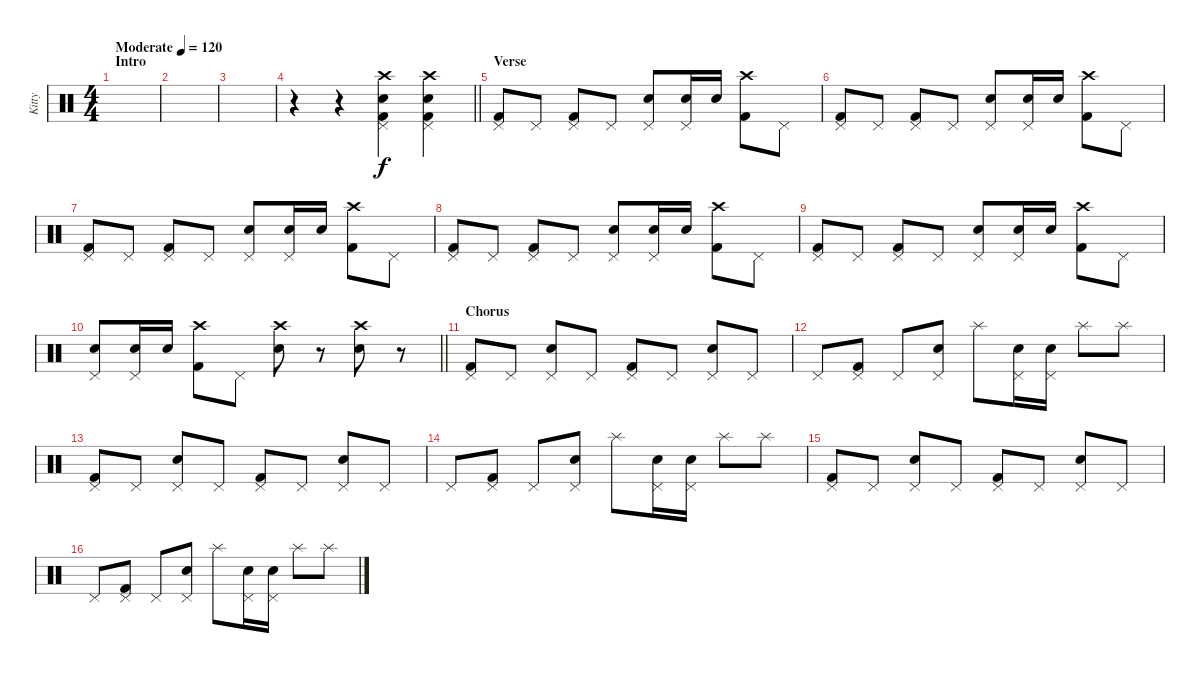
\track ("Kitty" "Kitty") {instrument percussion}
\staff {score}
\articulation defaults
\ts (4 4)
\section ("" "Intro")
\tempo (120 "Moderate")
\clef neutral
\ks c
|
|
|
\barLineRight lightlight
r.4 r.4 ("Kick (hit) 2" "Electric Snare (hit)" "Pedal Hi-Hat (hit)" "Crash high (hit)").4 ("Kick (hit) 2" "Electric Snare (hit)" "Pedal Hi-Hat (hit)" "Crash high (hit)").4 |
\section ("" "Verse")
("Pedal Hi-Hat (hit)" "Kick (hit) 2").8 "Pedal Hi-Hat (hit)".8 ("Pedal Hi-Hat (hit)" "Kick (hit) 2").8 "Pedal Hi-Hat (hit)".8 ("Pedal Hi-Hat (hit)" "Electric Snare (hit)").8 ("Pedal Hi-Hat (hit)" "Electric Snare (hit)").16 "Electric Snare (hit)".16 ("Crash high (hit)" "Kick (hit) 2").8 "Pedal Hi-Hat (hit)".8 |
("Pedal Hi-Hat (hit)" "Kick (hit) 2").8 "Pedal Hi-Hat (hit)".8 ("Pedal Hi-Hat (hit)" "Kick (hit) 2").8 "Pedal Hi-Hat (hit)".8 ("Pedal Hi-Hat (hit)" "Electric Snare (hit)").8 ("Pedal Hi-Hat (hit)" "Electric Snare (hit)").16 "Electric Snare (hit)".16 ("Crash high (hit)" "Kick (hit) 2").8 "Pedal Hi-Hat (hit)".8 |
("Pedal Hi-Hat (hit)" "Kick (hit) 2").8 "Pedal Hi-Hat (hit)".8 ("Pedal Hi-Hat (hit)" "Kick (hit) 2").8 "Pedal Hi-Hat (hit)".8 ("Pedal Hi-Hat (hit)" "Electric Snare (hit)").8 ("Pedal Hi-Hat (hit)" "Electric Snare (hit)").16 "Electric Snare (hit)".16 ("Crash high (hit)" "Kick (hit) 2").8 "Pedal Hi-Hat (hit)".8 |
("Pedal Hi-Hat (hit)" "Kick (hit) 2").8 "Pedal Hi-Hat (hit)".8 ("Pedal Hi-Hat (hit)" "Kick (hit) 2").8 "Pedal Hi-Hat (hit)".8 ("Pedal Hi-Hat (hit)" "Electric Snare (hit)").8 ("Pedal Hi-Hat (hit)" "Electric Snare (hit)").16 "Electric Snare (hit)".16 ("Crash high (hit)" "Kick (hit) 2").8 "Pedal Hi-Hat (hit)".8 |
("Pedal Hi-Hat (hit)" "Kick (hit) 2").8 "Pedal Hi-Hat (hit)".8 ("Pedal Hi-Hat (hit)" "Kick (hit) 2").8 "Pedal Hi-Hat (hit)".8 ("Pedal Hi-Hat (hit)" "Electric Snare (hit)").8 ("Pedal Hi-Hat (hit)" "Electric Snare (hit)").16 "Electric Snare (hit)".16 ("Crash high (hit)" "Kick (hit) 2").8 "Pedal Hi-Hat (hit)".8 |
\barLineRight lightlight
("Pedal Hi-Hat (hit)" "Electric Snare (hit)").8 ("Pedal Hi-Hat (hit)" "Electric Snare (hit)").16 "Electric Snare (hit)".16 ("Crash high (hit)" "Kick (hit) 2").8 "Pedal Hi-Hat (hit)".8 ("Crash high (hit)" "Electric Snare (hit)").8 r.8 ("Crash high (hit)" "Electric Snare (hit)").8 r.8 |
\section ("" "Chorus")
("Pedal Hi-Hat (hit)" "Kick (hit) 2").8 "Pedal Hi-Hat (hit)".8 ("Pedal Hi-Hat (hit)" "Electric Snare (hit)").8 "Pedal Hi-Hat (hit)".8 ("Pedal Hi-Hat (hit)" "Kick (hit) 2").8 "Pedal Hi-Hat (hit)".8 ("Pedal Hi-Hat (hit)" "Electric Snare (hit)").8 "Pedal Hi-Hat (hit)".8 |
"Pedal Hi-Hat (hit)".8 ("Pedal Hi-Hat (hit)" "Kick (hit) 2").8 "Pedal Hi-Hat (hit)".8 ("Pedal Hi-Hat (hit)" "Electric Snare (hit)").8 "Splash (hit)".8 ("Pedal Hi-Hat (hit)" "Electric Snare (hit)").16 ("Pedal Hi-Hat (hit)" "Electric Snare (hit)").16 "Splash (hit)".8 "Splash (hit)".8 |
("Pedal Hi-Hat (hit)" "Kick (hit) 2").8 "Pedal Hi-Hat (hit)".8 ("Pedal Hi-Hat (hit)" "Electric Snare (hit)").8 "Pedal Hi-Hat (hit)".8 ("Pedal Hi-Hat (hit)" "Kick (hit) 2").8 "Pedal Hi-Hat (hit)".8 ("Pedal Hi-Hat (hit)" "Electric Snare (hit)").8 "Pedal Hi-Hat (hit)".8 |
"Pedal Hi-Hat (hit)".8 ("Pedal Hi-Hat (hit)" "Kick (hit) 2").8 "Pedal Hi-Hat (hit)".8 ("Pedal Hi-Hat (hit)" "Electric Snare (hit)").8 "Splash (hit)".8 ("Pedal Hi-Hat (hit)" "Electric Snare (hit)").16 ("Pedal Hi-Hat (hit)" "Electric Snare (hit)").16 "Splash (hit)".8 "Splash (hit)".8 |
("Pedal Hi-Hat (hit)" "Kick (hit) 2").8 "Pedal Hi-Hat (hit)".8 ("Pedal Hi-Hat (hit)" "Electric Snare (hit)").8 "Pedal Hi-Hat (hit)".8 ("Pedal Hi-Hat (hit)" "Kick (hit) 2").8 "Pedal Hi-Hat (hit)".8 ("Pedal Hi-Hat (hit)" "Electric Snare (hit)").8 "Pedal Hi-Hat (hit)".8 |
"Pedal Hi-Hat (hit)".8 ("Pedal Hi-Hat (hit)" "Kick (hit) 2").8 "Pedal Hi-Hat (hit)".8 ("Pedal Hi-Hat (hit)" "Electric Snare (hit)").8 "Splash (hit)".8 ("Pedal Hi-Hat (hit)" "Electric Snare (hit)").16 ("Pedal Hi-Hat (hit)" "Electric Snare (hit)").16 "Splash (hit)".8 "Splash (hit)".8
